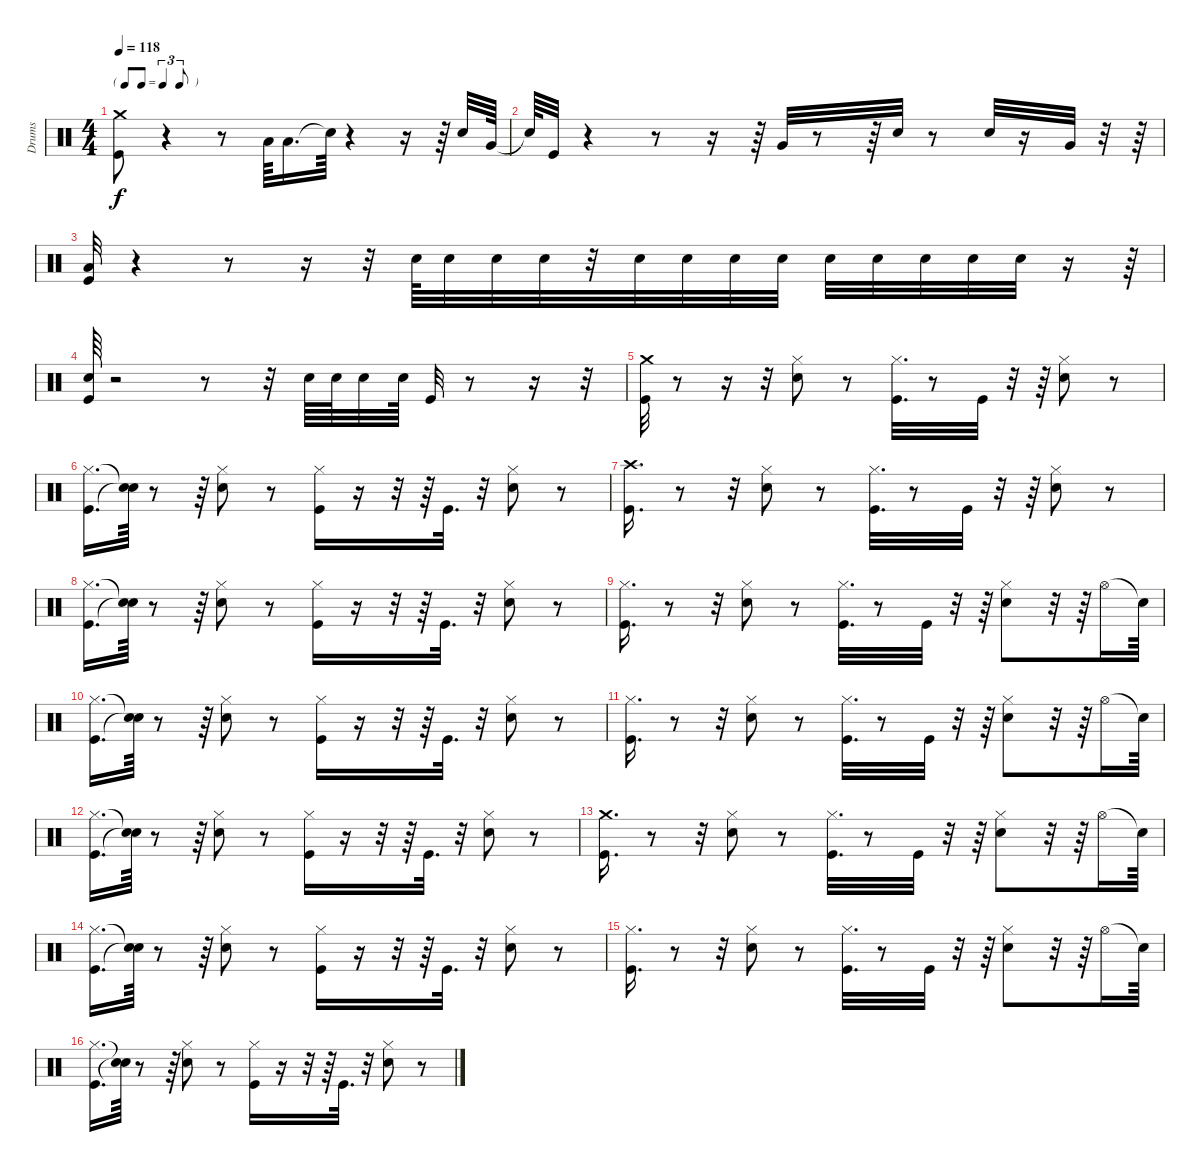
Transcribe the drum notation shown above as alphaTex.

\track ("Drums" "Drums") {instrument percussion}
\staff {score}
\articulation defaults
\ts (4 4)
\tf triplet8th
\tempo 118
\clef neutral
\ks c
("Crash medium (hit)" "Kick (hit)").8{dy f} r.4 r.8 "Low Tom (hit)".64 "Low Tom (hit)".16{d} "Snare (hit)"{t}.64 r.4 r.16 r.64 "Snare (hit) 2".32 "Very Low Tom (hit)".64 |
"Snare (hit)"{t}.64 "Kick (hit)".32 r.4 r.8 r.16 r.64 "Very Low Tom (hit)".32 r.8 r.64 "Snare (hit) 2".32 r.8 "Snare (hit) 2".32 r.16 "Very Low Tom (hit)".32 r.32 r.64 |
("Kick (hit)" "Low Floor Tom (hit)").32 r.4 r.8 r.16 r.32 "Snare (hit) 2".64 "Snare (hit) 2".32 "Snare (hit) 2".32 "Snare (hit) 2".32 r.32 "Snare (hit) 2".32 "Snare (hit) 2".32 "Snare (hit) 2".32 "Snare (hit) 2".32 "Snare (hit) 2".32 "Snare (hit) 2".32 "Snare (hit) 2".32 "Snare (hit) 2".32 "Snare (hit) 2".32 r.16 r.64 |
("Kick (hit)" "Snare (hit) 2").64 r.2 r.8 r.32 "Snare (hit) 2".64 "Snare (hit) 2".64 "Snare (hit) 2".32 "Snare (hit) 2".64 "Kick (hit)".32 r.8 r.16 r.32 |
("Crash medium (hit)" "Kick (hit)").32 r.8 r.16 r.32 ("Snare (hit) 2" "Hi-Hat (closed)").8 r.8 ("Kick (hit)" "Hi-Hat (closed)").32{d} r.8 "Kick (hit)".32 r.32 r.64 ("Hi-Hat (closed)" "Snare (hit) 2").8 r.8 |
("Hi-Hat (closed)" "Kick (hit)").16{d} ("Snare (hit)"{t} "Snare (hit)"{t}).64 r.8 r.64 ("Snare (hit) 2" "Hi-Hat (closed)").8 r.8 ("Kick (hit)" "Hi-Hat (closed)").16 r.16 r.32 r.64 "Kick (hit)".32{d} r.32 ("Snare (hit) 2" "Hi-Hat (closed)").8 r.8 |
("Crash high (hit)" "Kick (hit)").16{d} r.8 r.32 ("Hi-Hat (closed)" "Snare (hit) 2").8 r.8 ("Hi-Hat (closed)" "Kick (hit)").32{d} r.8 "Kick (hit)".32 r.32 r.64 ("Hi-Hat (closed)" "Snare (hit) 2").8 r.8 |
("Kick (hit)" "Hi-Hat (closed)").16{d} ("Snare (hit)"{t} "Snare (hit)"{t}).64 r.8 r.64 ("Snare (hit) 2" "Hi-Hat (closed)").8 r.8 ("Kick (hit)" "Hi-Hat (closed)").16 r.16 r.32 r.64 "Kick (hit)".32{d} r.32 ("Snare (hit) 2" "Hi-Hat (closed)").8 r.8 |
("Kick (hit)" "Hi-Hat (closed)").16{d} r.8 r.32 ("Hi-Hat (closed)" "Snare (hit) 2").8 r.8 ("Hi-Hat (closed)" "Kick (hit)").32{d} r.8 "Kick (hit)".32 r.32 r.64 ("Snare (hit) 2" "Hi-Hat (closed)").8 r.32 r.64 "Hi-Hat (open)".16 "Snare (hit)"{t}.64 |
("Kick (hit)" "Hi-Hat (closed)").16{d} ("Snare (hit)"{t} "Snare (hit)"{t}).64 r.8 r.64 ("Snare (hit) 2" "Hi-Hat (closed)").8 r.8 ("Hi-Hat (closed)" "Kick (hit)").16 r.16 r.32 r.64 "Kick (hit)".32{d} r.32 ("Snare (hit) 2" "Hi-Hat (closed)").8 r.8 |
("Kick (hit)" "Hi-Hat (closed)").16{d} r.8 r.32 ("Snare (hit) 2" "Hi-Hat (closed)").8 r.8 ("Kick (hit)" "Hi-Hat (closed)").32{d} r.8 "Kick (hit)".32 r.32 r.64 ("Snare (hit) 2" "Hi-Hat (closed)").8 r.32 r.64 "Hi-Hat (open)".16 "Snare (hit)"{t}.64 |
("Hi-Hat (closed)" "Kick (hit)").16{d} ("Snare (hit)"{t} "Snare (hit)"{t}).64 r.8 r.64 ("Hi-Hat (closed)" "Snare (hit) 2").8 r.8 ("Kick (hit)" "Hi-Hat (closed)").16 r.16 r.32 r.64 "Kick (hit)".32{d} r.32 ("Hi-Hat (closed)" "Snare (hit) 2").8 r.8 |
("Crash medium (hit)" "Kick (hit)").16{d} r.8 r.32 ("Snare (hit) 2" "Hi-Hat (closed)").8 r.8 ("Kick (hit)" "Hi-Hat (closed)").32{d} r.8 "Kick (hit)".32 r.32 r.64 ("Hi-Hat (closed)" "Snare (hit) 2").8 r.32 r.64 "Hi-Hat (open)".16 "Snare (hit)"{t}.64 |
("Kick (hit)" "Hi-Hat (closed)").16{d} ("Snare (hit)"{t} "Snare (hit)"{t}).64 r.8 r.64 ("Snare (hit) 2" "Hi-Hat (closed)").8 r.8 ("Kick (hit)" "Hi-Hat (closed)").16 r.16 r.32 r.64 "Kick (hit)".32{d} r.32 ("Hi-Hat (closed)" "Snare (hit) 2").8 r.8 |
("Hi-Hat (closed)" "Kick (hit)").16{d} r.8 r.32 ("Snare (hit) 2" "Hi-Hat (closed)").8 r.8 ("Kick (hit)" "Hi-Hat (closed)").32{d} r.8 "Kick (hit)".32 r.32 r.64 ("Snare (hit) 2" "Hi-Hat (closed)").8 r.32 r.64 "Hi-Hat (open)".16 "Snare (hit)"{t}.64 |
("Kick (hit)" "Hi-Hat (closed)").16{d} ("Snare (hit)"{t} "Snare (hit)"{t}).64 r.8 r.64 ("Hi-Hat (closed)" "Snare (hit) 2").8 r.8 ("Hi-Hat (closed)" "Kick (hit)").16 r.16 r.32 r.64 "Kick (hit)".32{d} r.32 ("Snare (hit) 2" "Hi-Hat (closed)").8 r.8
